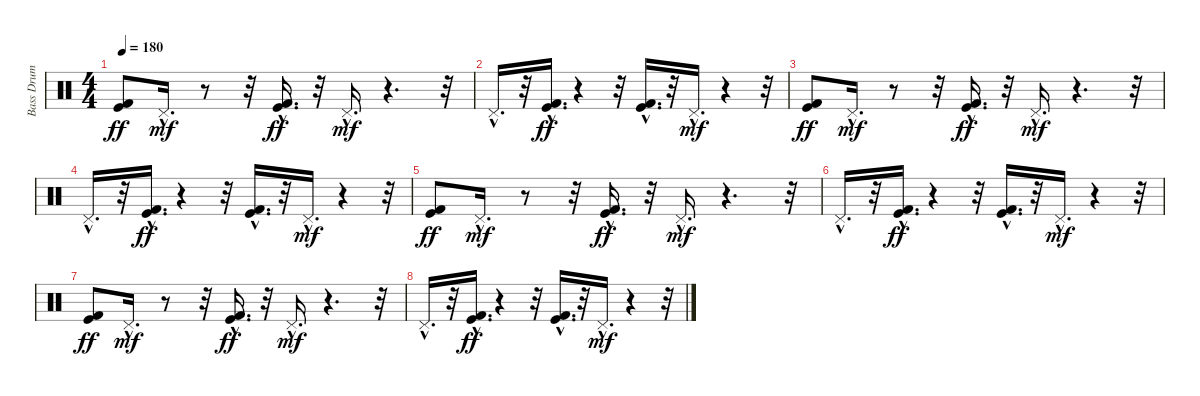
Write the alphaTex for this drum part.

\track ("Bass Drum" "Bass Drum") {instrument percussion}
\staff {score}
\articulation defaults
\ts (4 4)
\tempo 180
\clef neutral
\ks c
("Kick (hit) 2" "Kick (hit)").8{dy ff} "Pedal Hi-Hat (hit)"{hac}.16{d dy mf} r.8 r.32 ("Kick (hit)"{hac} "Kick (hit) 2"{hac}).16{d dy ff} r.32 "Pedal Hi-Hat (hit)"{hac}.16{d dy mf} r.4{d} r.32 |
"Pedal Hi-Hat (hit)"{hac}.16{d} r.32 ("Kick (hit)"{hac} "Kick (hit) 2"{hac}).16{d dy ff} r.4 r.32 ("Kick (hit) 2"{hac} "Kick (hit)"{hac}).16{d} r.32 "Pedal Hi-Hat (hit)"{hac}.16{d dy mf} r.4 r.32 |
("Kick (hit) 2" "Kick (hit)").8{dy ff} "Pedal Hi-Hat (hit)"{hac}.16{d dy mf} r.8 r.32 ("Kick (hit)"{hac} "Kick (hit) 2"{hac}).16{d dy ff} r.32 "Pedal Hi-Hat (hit)"{hac}.16{d dy mf} r.4{d} r.32 |
"Pedal Hi-Hat (hit)"{hac}.16{d} r.32 ("Kick (hit)"{hac} "Kick (hit) 2"{hac}).16{d dy ff} r.4 r.32 ("Kick (hit) 2"{hac} "Kick (hit)"{hac}).16{d} r.32 "Pedal Hi-Hat (hit)"{hac}.16{d dy mf} r.4 r.32 |
("Kick (hit) 2" "Kick (hit)").8{dy ff} "Pedal Hi-Hat (hit)"{hac}.16{d dy mf} r.8 r.32 ("Kick (hit)"{hac} "Kick (hit) 2"{hac}).16{d dy ff} r.32 "Pedal Hi-Hat (hit)"{hac}.16{d dy mf} r.4{d} r.32 |
"Pedal Hi-Hat (hit)"{hac}.16{d} r.32 ("Kick (hit)"{hac} "Kick (hit) 2"{hac}).16{d dy ff} r.4 r.32 ("Kick (hit) 2"{hac} "Kick (hit)"{hac}).16{d} r.32 "Pedal Hi-Hat (hit)"{hac}.16{d dy mf} r.4 r.32 |
("Kick (hit) 2" "Kick (hit)").8{dy ff} "Pedal Hi-Hat (hit)"{hac}.16{d dy mf} r.8 r.32 ("Kick (hit)"{hac} "Kick (hit) 2"{hac}).16{d dy ff} r.32 "Pedal Hi-Hat (hit)"{hac}.16{d dy mf} r.4{d} r.32 |
"Pedal Hi-Hat (hit)"{hac}.16{d} r.32 ("Kick (hit)"{hac} "Kick (hit) 2"{hac}).16{d dy ff} r.4 r.32 ("Kick (hit) 2"{hac} "Kick (hit)"{hac}).16{d} r.32 "Pedal Hi-Hat (hit)"{hac}.16{d dy mf} r.4 r.32
